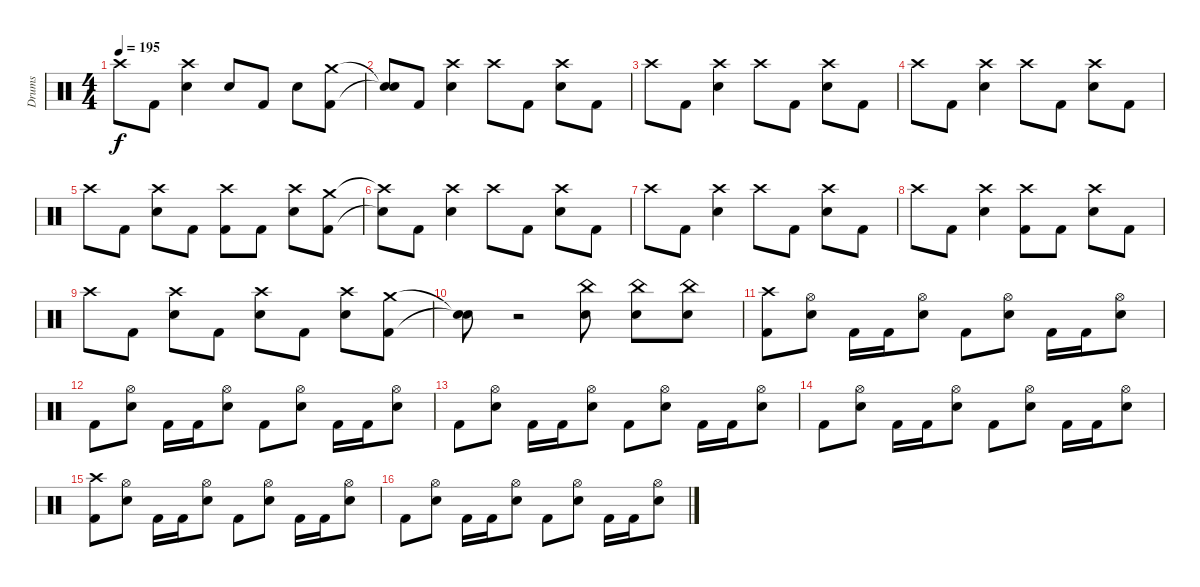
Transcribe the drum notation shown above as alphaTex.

\track ("Drums" "Drums") {instrument percussion}
\staff {score}
\articulation defaults
\ts (4 4)
\tempo 195
\clef neutral
\ks c "Crash high (hit)".8{dy f} "Kick (hit) 2".8
("Crash high (hit)" "Electric Snare (hit)").4 "Electric Snare (hit)".8 "Kick (hit) 2".8 "Electric Snare (hit)".8 ("Crash medium (hit)" "Kick (hit) 2").8 |
("Snare (hit)"{t} "Snare (hit)"{t}).8 "Kick (hit) 2".8 ("Crash high (hit)" "Electric Snare (hit)").4 "Crash high (hit)".8 "Kick (hit) 2".8 ("Crash high (hit)" "Electric Snare (hit)").8 "Kick (hit) 2".8 |
"Crash high (hit)".8 "Kick (hit) 2".8 ("Crash high (hit)" "Electric Snare (hit)").4 "Crash high (hit)".8 "Kick (hit) 2".8 ("Crash high (hit)" "Electric Snare (hit)").8 "Kick (hit) 2".8 |
"Crash high (hit)".8 "Kick (hit) 2".8 ("Crash high (hit)" "Electric Snare (hit)").4 "Crash high (hit)".8 "Kick (hit) 2".8 ("Crash high (hit)" "Electric Snare (hit)").8 "Kick (hit) 2".8 |
"Crash high (hit)".8 "Kick (hit) 2".8 ("Crash high (hit)" "Electric Snare (hit)").8 "Kick (hit) 2".8 ("Crash high (hit)" "Kick (hit) 2").8 "Kick (hit) 2".8 ("Crash high (hit)" "Electric Snare (hit)").8 ("Crash medium (hit)" "Kick (hit) 2").8 |
("Crash high (hit)"{t} "Snare (hit)"{t}).8 "Kick (hit) 2".8 ("Crash high (hit)" "Electric Snare (hit)").4 "Crash high (hit)".8 "Kick (hit) 2".8 ("Crash high (hit)" "Electric Snare (hit)").8 "Kick (hit) 2".8 |
"Crash high (hit)".8 "Kick (hit) 2".8 ("Crash high (hit)" "Electric Snare (hit)").4 "Crash high (hit)".8 "Kick (hit) 2".8 ("Crash high (hit)" "Electric Snare (hit)").8 "Kick (hit) 2".8 |
"Crash high (hit)".8 "Kick (hit) 2".8 ("Crash high (hit)" "Electric Snare (hit)").4 ("Crash high (hit)" "Kick (hit) 2").8 "Kick (hit) 2".8 ("Crash high (hit)" "Electric Snare (hit)").8 "Kick (hit) 2".8 |
"Crash high (hit)".8 "Kick (hit) 2".8 ("Crash high (hit)" "Electric Snare (hit)").8 "Kick (hit) 2".8 ("Crash high (hit)" "Electric Snare (hit)").8 "Kick (hit) 2".8 ("Crash high (hit)" "Electric Snare (hit)").8 ("Crash medium (hit)" "Kick (hit) 2").8 |
("Snare (hit)"{t} "Snare (hit)"{t}).8 r.2{volume 0} ("China (hit)" "Electric Snare (hit)").8{volume 16} ("China (hit)" "Electric Snare (hit)").8 ("China (hit)" "Electric Snare (hit)").8 |
("Crash high (hit)" "Kick (hit) 2").8 ("Hi-Hat (open)" "Electric Snare (hit)").8 "Kick (hit) 2".16 "Kick (hit) 2".16 ("Hi-Hat (open)" "Electric Snare (hit)").8 "Kick (hit) 2".8 ("Hi-Hat (open)" "Electric Snare (hit)").8 "Kick (hit) 2".16 "Kick (hit) 2".16 ("Hi-Hat (open)" "Electric Snare (hit)").8 |
"Kick (hit) 2".8 ("Hi-Hat (open)" "Electric Snare (hit)").8 "Kick (hit) 2".16 "Kick (hit) 2".16 ("Hi-Hat (open)" "Electric Snare (hit)").8 "Kick (hit) 2".8 ("Hi-Hat (open)" "Electric Snare (hit)").8 "Kick (hit) 2".16 "Kick (hit) 2".16 ("Hi-Hat (open)" "Electric Snare (hit)").8 |
"Kick (hit) 2".8 ("Hi-Hat (open)" "Electric Snare (hit)").8 "Kick (hit) 2".16 "Kick (hit) 2".16 ("Hi-Hat (open)" "Electric Snare (hit)").8 "Kick (hit) 2".8 ("Hi-Hat (open)" "Electric Snare (hit)").8 "Kick (hit) 2".16 "Kick (hit) 2".16 ("Hi-Hat (open)" "Electric Snare (hit)").8 |
"Kick (hit) 2".8 ("Hi-Hat (open)" "Electric Snare (hit)").8 "Kick (hit) 2".16 "Kick (hit) 2".16 ("Hi-Hat (open)" "Electric Snare (hit)").8 "Kick (hit) 2".8 ("Hi-Hat (open)" "Electric Snare (hit)").8 "Kick (hit) 2".16 "Kick (hit) 2".16 ("Hi-Hat (open)" "Electric Snare (hit)").8 |
("Crash high (hit)" "Kick (hit) 2").8 ("Hi-Hat (open)" "Electric Snare (hit)").8 "Kick (hit) 2".16 "Kick (hit) 2".16 ("Hi-Hat (open)" "Electric Snare (hit)").8 "Kick (hit) 2".8 ("Hi-Hat (open)" "Electric Snare (hit)").8 "Kick (hit) 2".16 "Kick (hit) 2".16 ("Hi-Hat (open)" "Electric Snare (hit)").8 |
"Kick (hit) 2".8 ("Hi-Hat (open)" "Electric Snare (hit)").8 "Kick (hit) 2".16 "Kick (hit) 2".16 ("Hi-Hat (open)" "Electric Snare (hit)").8 "Kick (hit) 2".8 ("Hi-Hat (open)" "Electric Snare (hit)").8 "Kick (hit) 2".16 "Kick (hit) 2".16 ("Hi-Hat (open)" "Electric Snare (hit)").8
